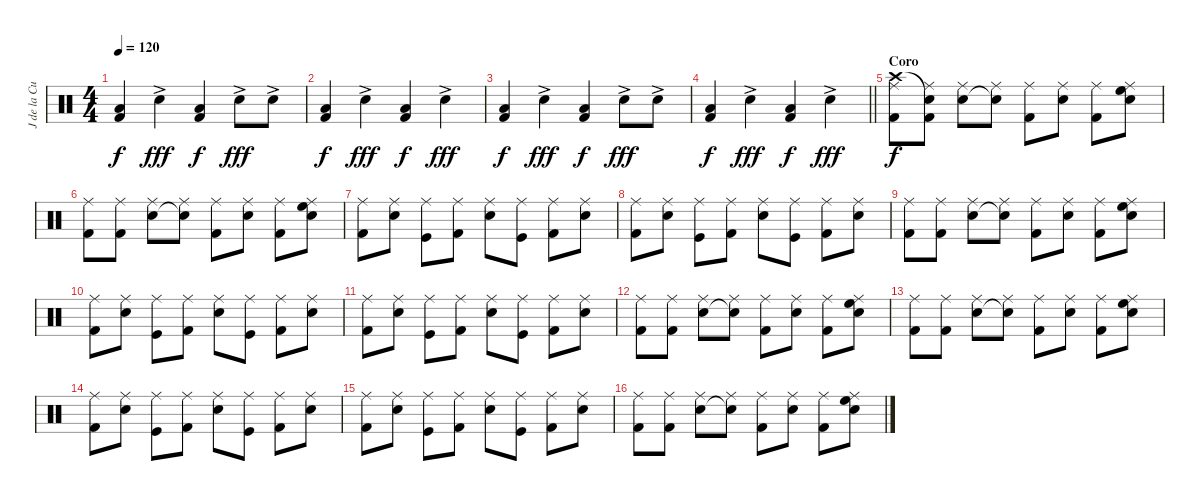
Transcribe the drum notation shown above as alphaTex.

\track ("J de la Cueva" "J de la Cu") {instrument percussion}
\staff {score}
\articulation defaults
\ts (4 4)
\tempo 120
\clef neutral
\ks c
("Low Tom (hit)" "Kick (hit) 2").4{dy f} "Snare (hit) 2"{ac}.4{dy fff} ("Low Tom (hit)" "Kick (hit) 2").4{dy f} "Snare (hit) 2"{ac}.8{dy fff} "Electric Snare (hit)"{ac}.8 |
("Low Tom (hit)" "Kick (hit) 2").4{dy f} "Snare (hit) 2"{ac}.4{dy fff} ("Low Tom (hit)" "Kick (hit) 2").4{dy f} "Snare (hit) 2"{ac}.4{dy fff} |
("Low Tom (hit)" "Kick (hit) 2").4{dy f} "Snare (hit) 2"{ac}.4{dy fff} ("Low Tom (hit)" "Kick (hit) 2").4{dy f} "Snare (hit) 2"{ac}.8{dy fff} "Electric Snare (hit)"{ac}.8 |
\barLineRight lightlight
("Low Tom (hit)" "Kick (hit) 2").4{dy f} "Snare (hit) 2"{ac}.4{dy fff} ("Low Tom (hit)" "Kick (hit) 2").4{dy f} "Snare (hit) 2"{ac}.4{dy fff} |
\section ("" "Coro")
("Crash high (hit)" "Ride (middle)" "Kick (hit) 2").8{dy f} ("Snare (hit)"{t} "Ride (middle)" "Kick (hit) 2").8 ("Ride (middle)" "Snare (hit) 2").8 ("Ride (middle)" "Snare (hit) 2"{t}).8 ("Ride (middle)" "Kick (hit) 2").8 ("Ride (middle)" "Snare (hit) 2").8 ("Ride (middle)" "Kick (hit) 2").8 ("Ride (middle)" "High Floor Tom (hit)" "Snare (hit) 2").8 |
("Ride (middle)" "Kick (hit) 2").8 ("Ride (middle)" "Kick (hit) 2").8 ("Ride (middle)" "Snare (hit) 2").8 ("Ride (middle)" "Snare (hit) 2"{t}).8 ("Ride (middle)" "Kick (hit) 2").8 ("Ride (middle)" "Snare (hit) 2").8 ("Ride (middle)" "Kick (hit) 2").8 ("Ride (middle)" "High Floor Tom (hit)" "Snare (hit) 2").8 |
("Ride (middle)" "Kick (hit) 2").8 ("Ride (middle)" "Snare (hit) 2").8 ("Ride (middle)" "Kick (hit)").8 ("Ride (middle)" "Kick (hit) 2").8 ("Ride (middle)" "Snare (hit) 2").8 ("Ride (middle)" "Kick (hit)").8 ("Ride (middle)" "Kick (hit) 2").8 ("Ride (middle)" "Snare (hit) 2").8 |
("Ride (middle)" "Kick (hit) 2").8 ("Ride (middle)" "Snare (hit) 2").8 ("Ride (middle)" "Kick (hit)").8 ("Ride (middle)" "Kick (hit) 2").8 ("Ride (middle)" "Snare (hit) 2").8 ("Ride (middle)" "Kick (hit)").8 ("Ride (middle)" "Kick (hit) 2").8 ("Ride (middle)" "Snare (hit) 2").8 |
("Ride (middle)" "Kick (hit) 2").8 ("Ride (middle)" "Kick (hit) 2").8 ("Ride (middle)" "Snare (hit) 2").8 ("Ride (middle)" "Snare (hit) 2"{t}).8 ("Ride (middle)" "Kick (hit) 2").8 ("Ride (middle)" "Snare (hit) 2").8 ("Ride (middle)" "Kick (hit) 2").8 ("Ride (middle)" "High Floor Tom (hit)" "Snare (hit) 2").8 |
("Ride (middle)" "Kick (hit) 2").8 ("Ride (middle)" "Snare (hit) 2").8 ("Ride (middle)" "Kick (hit)").8 ("Ride (middle)" "Kick (hit) 2").8 ("Ride (middle)" "Snare (hit) 2").8 ("Ride (middle)" "Kick (hit)").8 ("Ride (middle)" "Kick (hit) 2").8 ("Ride (middle)" "Snare (hit) 2").8 |
("Ride (middle)" "Kick (hit) 2").8 ("Ride (middle)" "Snare (hit) 2").8 ("Ride (middle)" "Kick (hit)").8 ("Ride (middle)" "Kick (hit) 2").8 ("Ride (middle)" "Snare (hit) 2").8 ("Ride (middle)" "Kick (hit)").8 ("Ride (middle)" "Kick (hit) 2").8 ("Ride (middle)" "Snare (hit) 2").8 |
("Ride (middle)" "Kick (hit) 2").8 ("Ride (middle)" "Kick (hit) 2").8 ("Ride (middle)" "Snare (hit) 2").8 ("Ride (middle)" "Snare (hit) 2"{t}).8 ("Ride (middle)" "Kick (hit) 2").8 ("Ride (middle)" "Snare (hit) 2").8 ("Ride (middle)" "Kick (hit) 2").8 ("Ride (middle)" "High Floor Tom (hit)" "Snare (hit) 2").8 |
("Ride (middle)" "Kick (hit) 2").8 ("Ride (middle)" "Kick (hit) 2").8 ("Ride (middle)" "Snare (hit) 2").8 ("Ride (middle)" "Snare (hit) 2"{t}).8 ("Ride (middle)" "Kick (hit) 2").8 ("Ride (middle)" "Snare (hit) 2").8 ("Ride (middle)" "Kick (hit) 2").8 ("Ride (middle)" "High Floor Tom (hit)" "Snare (hit) 2").8 |
("Ride (middle)" "Kick (hit) 2").8 ("Ride (middle)" "Snare (hit) 2").8 ("Ride (middle)" "Kick (hit)").8 ("Ride (middle)" "Kick (hit) 2").8 ("Ride (middle)" "Snare (hit) 2").8 ("Ride (middle)" "Kick (hit)").8 ("Ride (middle)" "Kick (hit) 2").8 ("Ride (middle)" "Snare (hit) 2").8 |
("Ride (middle)" "Kick (hit) 2").8 ("Ride (middle)" "Snare (hit) 2").8 ("Ride (middle)" "Kick (hit)").8 ("Ride (middle)" "Kick (hit) 2").8 ("Ride (middle)" "Snare (hit) 2").8 ("Ride (middle)" "Kick (hit)").8 ("Ride (middle)" "Kick (hit) 2").8 ("Ride (middle)" "Snare (hit) 2").8 |
("Ride (middle)" "Kick (hit) 2").8 ("Ride (middle)" "Kick (hit) 2").8 ("Ride (middle)" "Snare (hit) 2").8 ("Ride (middle)" "Snare (hit) 2"{t}).8 ("Ride (middle)" "Kick (hit) 2").8 ("Ride (middle)" "Snare (hit) 2").8 ("Ride (middle)" "Kick (hit) 2").8 ("Ride (middle)" "High Floor Tom (hit)" "Snare (hit) 2").8
